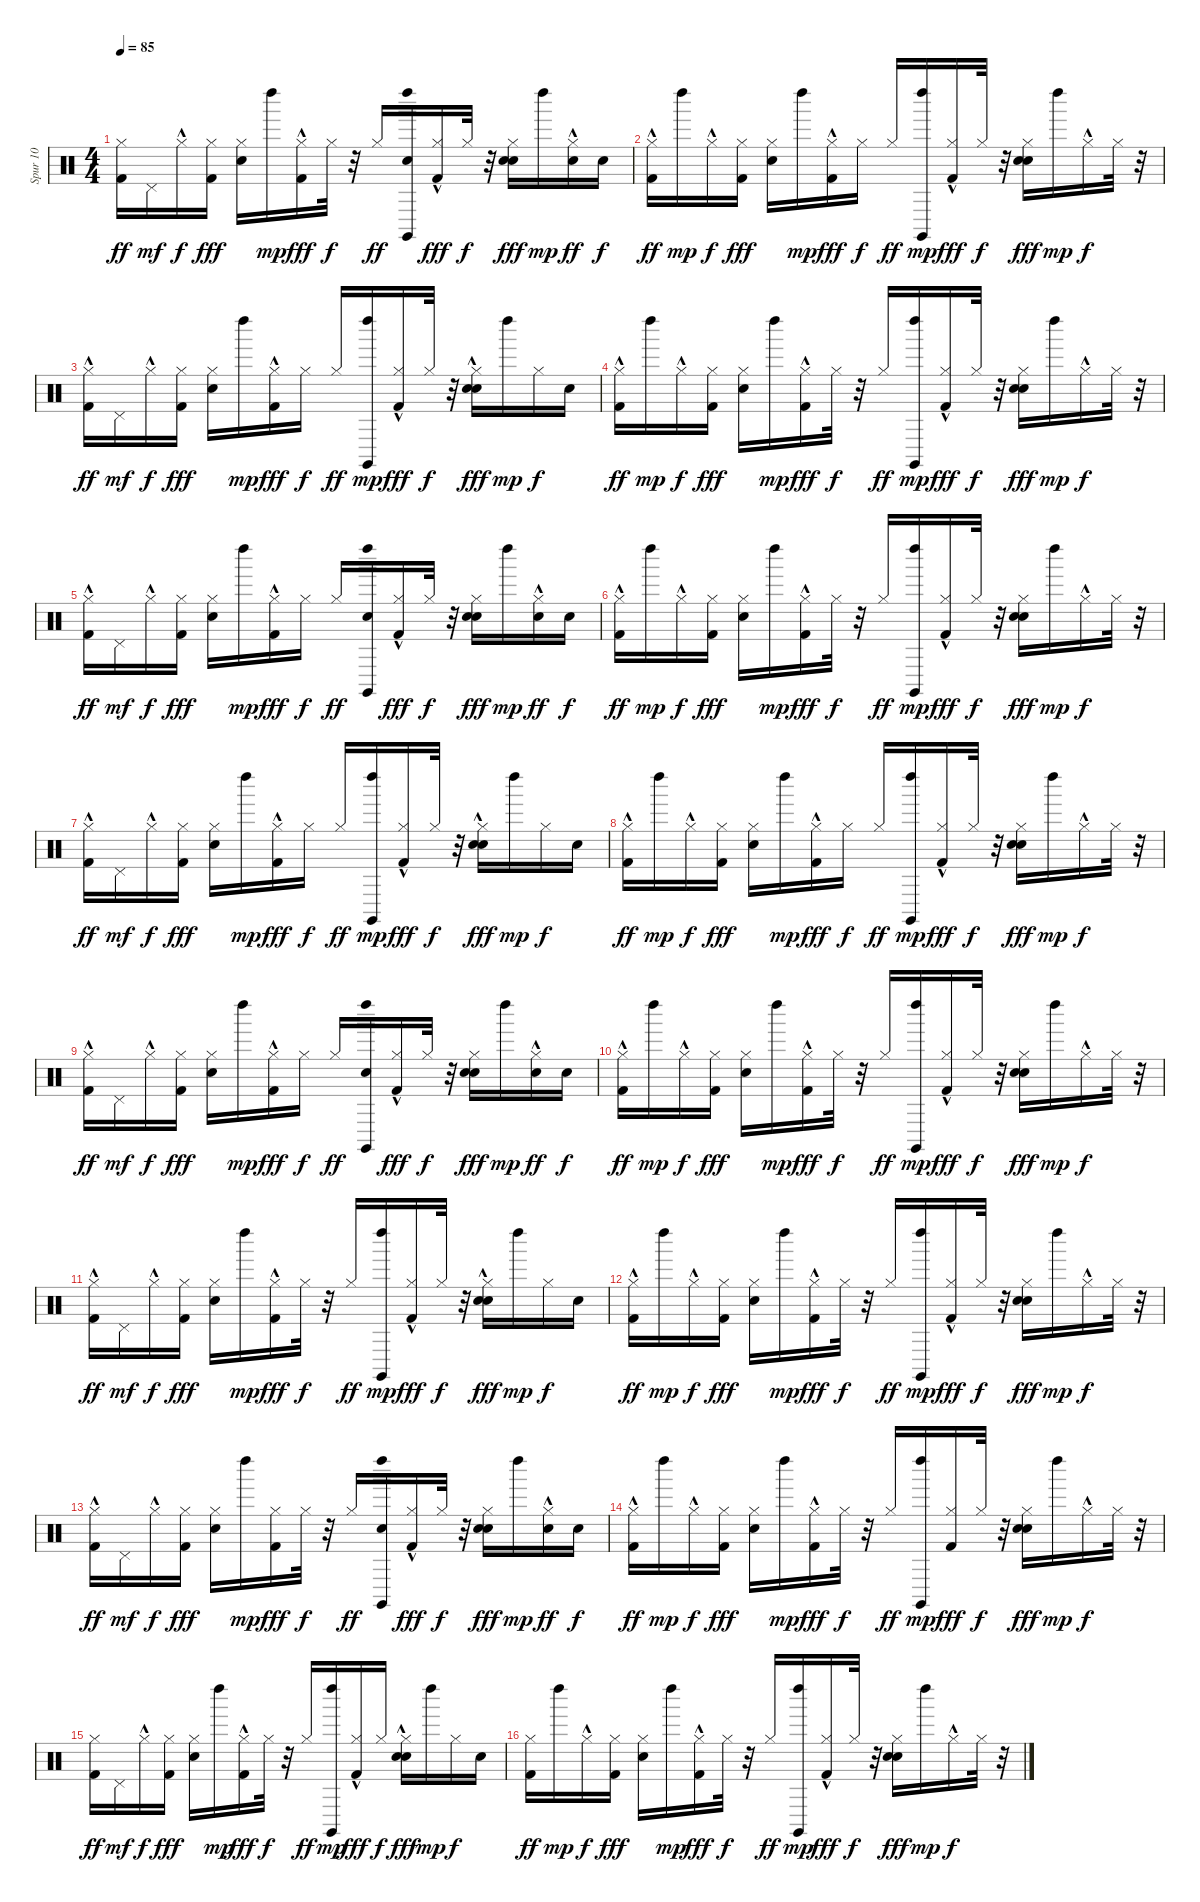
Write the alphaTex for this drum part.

\track ("Spur 10" "Spur 10") {instrument percussion}
\staff {score}
\articulation defaults
\ts (4 4)
\tempo 85
\clef neutral
\ks c
("Kick (hit) 2" "Hi-Hat (closed)").16{dy ff} "Pedal Hi-Hat (hit)".16{dy mf} "Hi-Hat (closed)"{hac}.16{dy f} ("Kick (hit) 2" "Hi-Hat (closed)").16{dy fff} ("Hi-Hat (closed)" "Snare (hit) 2").16 "Left Maraca (hit)".16{dy mp} ("Kick (hit) 2" "Hi-Hat (closed)"{hac}).16{dy fff} "Hi-Hat (closed)".32{dy f} r.32 "Hi-Hat (closed)".16{dy ff} ("Left Maraca (hit)" "Claves (hit)" "Snare (hit) 2").16 ("Kick (hit) 2"{hac} "Hi-Hat (closed)").16{dy fff} "Hi-Hat (closed)".32{dy f} r.32 ("Hi-Hat (closed)" "Snare (hit) 2" "Hand Clap (hit)").16{dy fff} "Left Maraca (hit)".16{dy mp} ("Hi-Hat (closed)" "Snare (hit) 2"{hac}).16{dy ff} "Snare (hit) 2".16{dy f} |
("Kick (hit) 2"{hac} "Hi-Hat (closed)").16{dy ff} "Left Maraca (hit)".16{dy mp} "Hi-Hat (closed)"{hac}.16{dy f} ("Kick (hit) 2" "Hi-Hat (closed)").16{dy fff} ("Hi-Hat (closed)" "Snare (hit) 2").16 "Left Maraca (hit)".16{dy mp} ("Kick (hit) 2" "Hi-Hat (closed)"{hac}).16{dy fff} "Hi-Hat (closed)".16{dy f} "Hi-Hat (closed)".16{dy ff} ("Left Maraca (hit)" "Claves (hit)").16{dy mp} ("Kick (hit) 2"{hac} "Hi-Hat (closed)"{hac}).16{dy fff} "Hi-Hat (closed)".32{dy f} r.32 ("Hi-Hat (closed)" "Snare (hit) 2" "Hand Clap (hit)").16{dy fff} "Left Maraca (hit)".16{dy mp} "Hi-Hat (closed)"{hac}.16{dy f} "Hi-Hat (closed)".32 r.32 |
("Kick (hit) 2"{hac} "Hi-Hat (closed)").16{dy ff} "Pedal Hi-Hat (hit)".16{dy mf} "Hi-Hat (closed)"{hac}.16{dy f} ("Kick (hit) 2" "Hi-Hat (closed)").16{dy fff} ("Hi-Hat (closed)" "Snare (hit) 2").16 "Left Maraca (hit)".16{dy mp} ("Kick (hit) 2" "Hi-Hat (closed)"{hac}).16{dy fff} "Hi-Hat (closed)".16{dy f} "Hi-Hat (closed)".16{dy ff} ("Left Maraca (hit)" "Claves (hit)").16{dy mp} ("Kick (hit) 2"{hac} "Hi-Hat (closed)"{hac}).16{dy fff} "Hi-Hat (closed)".32{dy f} r.32 ("Hi-Hat (closed)" "Snare (hit) 2"{hac} "Hand Clap (hit)").16{dy fff} "Left Maraca (hit)".16{dy mp} "Hi-Hat (closed)".16{dy f} "Snare (hit) 2".16 |
("Kick (hit) 2"{hac} "Hi-Hat (closed)").16{dy ff} "Left Maraca (hit)".16{dy mp} "Hi-Hat (closed)"{hac}.16{dy f} ("Kick (hit) 2" "Hi-Hat (closed)").16{dy fff} ("Hi-Hat (closed)" "Snare (hit) 2").16 "Left Maraca (hit)".16{dy mp} ("Kick (hit) 2" "Hi-Hat (closed)"{hac}).16{dy fff} "Hi-Hat (closed)".32{dy f} r.32 "Hi-Hat (closed)".16{dy ff} ("Left Maraca (hit)" "Claves (hit)").16{dy mp} ("Kick (hit) 2"{hac} "Hi-Hat (closed)"{hac}).16{dy fff} "Hi-Hat (closed)".32{dy f} r.32 ("Hi-Hat (closed)" "Snare (hit) 2" "Hand Clap (hit)").16{dy fff} "Left Maraca (hit)".16{dy mp} "Hi-Hat (closed)"{hac}.16{dy f} "Hi-Hat (closed)".32 r.32 |
("Kick (hit) 2"{hac} "Hi-Hat (closed)").16{dy ff} "Pedal Hi-Hat (hit)".16{dy mf} "Hi-Hat (closed)"{hac}.16{dy f} ("Kick (hit) 2" "Hi-Hat (closed)").16{dy fff} ("Hi-Hat (closed)" "Snare (hit) 2").16 "Left Maraca (hit)".16{dy mp} ("Kick (hit) 2" "Hi-Hat (closed)"{hac}).16{dy fff} "Hi-Hat (closed)".16{dy f} "Hi-Hat (closed)".16{dy ff} ("Left Maraca (hit)" "Claves (hit)" "Snare (hit) 2").16 ("Kick (hit) 2"{hac} "Hi-Hat (closed)"{hac}).16{dy fff} "Hi-Hat (closed)".32{dy f} r.32 ("Hi-Hat (closed)" "Snare (hit) 2" "Hand Clap (hit)").16{dy fff} "Left Maraca (hit)".16{dy mp} ("Hi-Hat (closed)" "Snare (hit) 2"{hac}).16{dy ff} "Snare (hit) 2".16{dy f} |
("Kick (hit) 2"{hac} "Hi-Hat (closed)").16{dy ff} "Left Maraca (hit)".16{dy mp} "Hi-Hat (closed)"{hac}.16{dy f} ("Kick (hit) 2" "Hi-Hat (closed)").16{dy fff} ("Hi-Hat (closed)" "Snare (hit) 2").16 "Left Maraca (hit)".16{dy mp} ("Kick (hit) 2" "Hi-Hat (closed)"{hac}).16{dy fff} "Hi-Hat (closed)".32{dy f} r.32 "Hi-Hat (closed)".16{dy ff} ("Left Maraca (hit)" "Claves (hit)").16{dy mp} ("Kick (hit) 2"{hac} "Hi-Hat (closed)"{hac}).16{dy fff} "Hi-Hat (closed)".32{dy f} r.32 ("Hi-Hat (closed)" "Snare (hit) 2" "Hand Clap (hit)").16{dy fff} "Left Maraca (hit)".16{dy mp} "Hi-Hat (closed)"{hac}.16{dy f} "Hi-Hat (closed)".32 r.32 |
("Kick (hit) 2"{hac} "Hi-Hat (closed)").16{dy ff} "Pedal Hi-Hat (hit)".16{dy mf} "Hi-Hat (closed)"{hac}.16{dy f} ("Kick (hit) 2" "Hi-Hat (closed)").16{dy fff} ("Hi-Hat (closed)" "Snare (hit) 2").16 "Left Maraca (hit)".16{dy mp} ("Kick (hit) 2" "Hi-Hat (closed)"{hac}).16{dy fff} "Hi-Hat (closed)".16{dy f} "Hi-Hat (closed)".16{dy ff} ("Left Maraca (hit)" "Claves (hit)").16{dy mp} ("Kick (hit) 2"{hac} "Hi-Hat (closed)"{hac}).16{dy fff} "Hi-Hat (closed)".32{dy f} r.32 ("Hi-Hat (closed)" "Snare (hit) 2"{hac} "Hand Clap (hit)").16{dy fff} "Left Maraca (hit)".16{dy mp} "Hi-Hat (closed)".16{dy f} "Snare (hit) 2".16 |
("Kick (hit) 2"{hac} "Hi-Hat (closed)").16{dy ff} "Left Maraca (hit)".16{dy mp} "Hi-Hat (closed)"{hac}.16{dy f} ("Kick (hit) 2" "Hi-Hat (closed)").16{dy fff} ("Hi-Hat (closed)" "Snare (hit) 2").16 "Left Maraca (hit)".16{dy mp} ("Kick (hit) 2" "Hi-Hat (closed)"{hac}).16{dy fff} "Hi-Hat (closed)".16{dy f} "Hi-Hat (closed)".16{dy ff} ("Left Maraca (hit)" "Claves (hit)").16{dy mp} ("Kick (hit) 2"{hac} "Hi-Hat (closed)"{hac}).16{dy fff} "Hi-Hat (closed)".32{dy f} r.32 ("Hi-Hat (closed)" "Snare (hit) 2" "Hand Clap (hit)").16{dy fff} "Left Maraca (hit)".16{dy mp} "Hi-Hat (closed)"{hac}.16{dy f} "Hi-Hat (closed)".32 r.32 |
("Kick (hit) 2"{hac} "Hi-Hat (closed)").16{dy ff} "Pedal Hi-Hat (hit)".16{dy mf} "Hi-Hat (closed)"{hac}.16{dy f} ("Kick (hit) 2" "Hi-Hat (closed)").16{dy fff} ("Hi-Hat (closed)" "Snare (hit) 2").16 "Left Maraca (hit)".16{dy mp} ("Kick (hit) 2" "Hi-Hat (closed)"{hac}).16{dy fff} "Hi-Hat (closed)".16{dy f} "Hi-Hat (closed)".16{dy ff} ("Left Maraca (hit)" "Claves (hit)" "Snare (hit) 2").16 ("Kick (hit) 2"{hac} "Hi-Hat (closed)"{hac}).16{dy fff} "Hi-Hat (closed)".32{dy f} r.32 ("Hi-Hat (closed)" "Snare (hit) 2" "Hand Clap (hit)").16{dy fff} "Left Maraca (hit)".16{dy mp} ("Hi-Hat (closed)" "Snare (hit) 2"{hac}).16{dy ff} "Snare (hit) 2".16{dy f} |
("Kick (hit) 2"{hac} "Hi-Hat (closed)").16{dy ff} "Left Maraca (hit)".16{dy mp} "Hi-Hat (closed)"{hac}.16{dy f} ("Kick (hit) 2" "Hi-Hat (closed)").16{dy fff} ("Hi-Hat (closed)" "Snare (hit) 2").16 "Left Maraca (hit)".16{dy mp} ("Kick (hit) 2" "Hi-Hat (closed)"{hac}).16{dy fff} "Hi-Hat (closed)".32{dy f} r.32 "Hi-Hat (closed)".16{dy ff} ("Left Maraca (hit)" "Claves (hit)").16{dy mp} ("Kick (hit) 2"{hac} "Hi-Hat (closed)").16{dy fff} "Hi-Hat (closed)".32{dy f} r.32 ("Hi-Hat (closed)" "Snare (hit) 2" "Hand Clap (hit)").16{dy fff} "Left Maraca (hit)".16{dy mp} "Hi-Hat (closed)"{hac}.16{dy f} "Hi-Hat (closed)".32 r.32 |
("Kick (hit) 2"{hac} "Hi-Hat (closed)").16{dy ff} "Pedal Hi-Hat (hit)".16{dy mf} "Hi-Hat (closed)"{hac}.16{dy f} ("Kick (hit) 2" "Hi-Hat (closed)").16{dy fff} ("Hi-Hat (closed)" "Snare (hit) 2").16 "Left Maraca (hit)".16{dy mp} ("Kick (hit) 2" "Hi-Hat (closed)"{hac}).16{dy fff} "Hi-Hat (closed)".32{dy f} r.32 "Hi-Hat (closed)".16{dy ff} ("Left Maraca (hit)" "Claves (hit)").16{dy mp} ("Kick (hit) 2"{hac} "Hi-Hat (closed)"{hac}).16{dy fff} "Hi-Hat (closed)".32{dy f} r.32 ("Hi-Hat (closed)" "Snare (hit) 2"{hac} "Hand Clap (hit)").16{dy fff} "Left Maraca (hit)".16{dy mp} "Hi-Hat (closed)".16{dy f} "Snare (hit) 2".16 |
("Kick (hit) 2"{hac} "Hi-Hat (closed)").16{dy ff} "Left Maraca (hit)".16{dy mp} "Hi-Hat (closed)"{hac}.16{dy f} ("Kick (hit) 2" "Hi-Hat (closed)").16{dy fff} ("Hi-Hat (closed)" "Snare (hit) 2").16 "Left Maraca (hit)".16{dy mp} ("Kick (hit) 2" "Hi-Hat (closed)"{hac}).16{dy fff} "Hi-Hat (closed)".32{dy f} r.32 "Hi-Hat (closed)".16{dy ff} ("Left Maraca (hit)" "Claves (hit)").16{dy mp} ("Kick (hit) 2"{hac} "Hi-Hat (closed)"{hac}).16{dy fff} "Hi-Hat (closed)".32{dy f} r.32 ("Hi-Hat (closed)" "Snare (hit) 2" "Hand Clap (hit)").16{dy fff} "Left Maraca (hit)".16{dy mp} "Hi-Hat (closed)"{hac}.16{dy f} "Hi-Hat (closed)".32 r.32 |
("Kick (hit) 2"{hac} "Hi-Hat (closed)").16{dy ff} "Pedal Hi-Hat (hit)".16{dy mf} "Hi-Hat (closed)"{hac}.16{dy f} ("Kick (hit) 2" "Hi-Hat (closed)").16{dy fff} ("Hi-Hat (closed)" "Snare (hit) 2").16 "Left Maraca (hit)".16{dy mp} ("Kick (hit) 2" "Hi-Hat (closed)").16{dy fff} "Hi-Hat (closed)".32{dy f} r.32 "Hi-Hat (closed)".16{dy ff} ("Left Maraca (hit)" "Claves (hit)" "Snare (hit) 2").16 ("Kick (hit) 2"{hac} "Hi-Hat (closed)"{hac}).16{dy fff} "Hi-Hat (closed)".32{dy f} r.32 ("Hi-Hat (closed)" "Snare (hit) 2" "Hand Clap (hit)").16{dy fff} "Left Maraca (hit)".16{dy mp} ("Hi-Hat (closed)" "Snare (hit) 2"{hac}).16{dy ff} "Snare (hit) 2".16{dy f} |
("Kick (hit) 2"{hac} "Hi-Hat (closed)").16{dy ff} "Left Maraca (hit)".16{dy mp} "Hi-Hat (closed)"{hac}.16{dy f} ("Kick (hit) 2" "Hi-Hat (closed)").16{dy fff} ("Hi-Hat (closed)" "Snare (hit) 2").16 "Left Maraca (hit)".16{dy mp} ("Kick (hit) 2" "Hi-Hat (closed)"{hac}).16{dy fff} "Hi-Hat (closed)".32{dy f} r.32 "Hi-Hat (closed)".16{dy ff} ("Left Maraca (hit)" "Claves (hit)").16{dy mp} ("Kick (hit) 2" "Hi-Hat (closed)").16{dy fff} "Hi-Hat (closed)".32{dy f} r.32 ("Hi-Hat (closed)" "Snare (hit) 2" "Hand Clap (hit)").16{dy fff} "Left Maraca (hit)".16{dy mp} "Hi-Hat (closed)"{hac}.16{dy f} "Hi-Hat (closed)".32 r.32 |
("Kick (hit) 2" "Hi-Hat (closed)").16{dy ff} "Pedal Hi-Hat (hit)".16{dy mf} "Hi-Hat (closed)"{hac}.16{dy f} ("Kick (hit) 2" "Hi-Hat (closed)").16{dy fff} ("Hi-Hat (closed)" "Snare (hit) 2").16 "Left Maraca (hit)".16{dy mp} ("Kick (hit) 2" "Hi-Hat (closed)"{hac}).16{dy fff} "Hi-Hat (closed)".32{dy f} r.32 "Hi-Hat (closed)".16{dy ff} ("Left Maraca (hit)" "Claves (hit)").16{dy mp} ("Kick (hit) 2"{hac} "Hi-Hat (closed)"{hac}).16{dy fff} "Hi-Hat (closed)".16{dy f} ("Hi-Hat (closed)" "Snare (hit) 2"{hac} "Hand Clap (hit)").16{dy fff} "Left Maraca (hit)".16{dy mp} "Hi-Hat (closed)".16{dy f} "Snare (hit) 2".16 |
("Kick (hit) 2" "Hi-Hat (closed)").16{dy ff} "Left Maraca (hit)".16{dy mp} "Hi-Hat (closed)"{hac}.16{dy f} ("Kick (hit) 2" "Hi-Hat (closed)").16{dy fff} ("Hi-Hat (closed)" "Snare (hit) 2").16 "Left Maraca (hit)".16{dy mp} ("Kick (hit) 2" "Hi-Hat (closed)"{hac}).16{dy fff} "Hi-Hat (closed)".32{dy f} r.32 "Hi-Hat (closed)".16{dy ff} ("Left Maraca (hit)" "Claves (hit)").16{dy mp} ("Kick (hit) 2"{hac} "Hi-Hat (closed)").16{dy fff} "Hi-Hat (closed)".32{dy f} r.32 ("Hi-Hat (closed)" "Snare (hit) 2" "Hand Clap (hit)").16{dy fff} "Left Maraca (hit)".16{dy mp} "Hi-Hat (closed)"{hac}.16{dy f} "Hi-Hat (closed)".32 r.32
